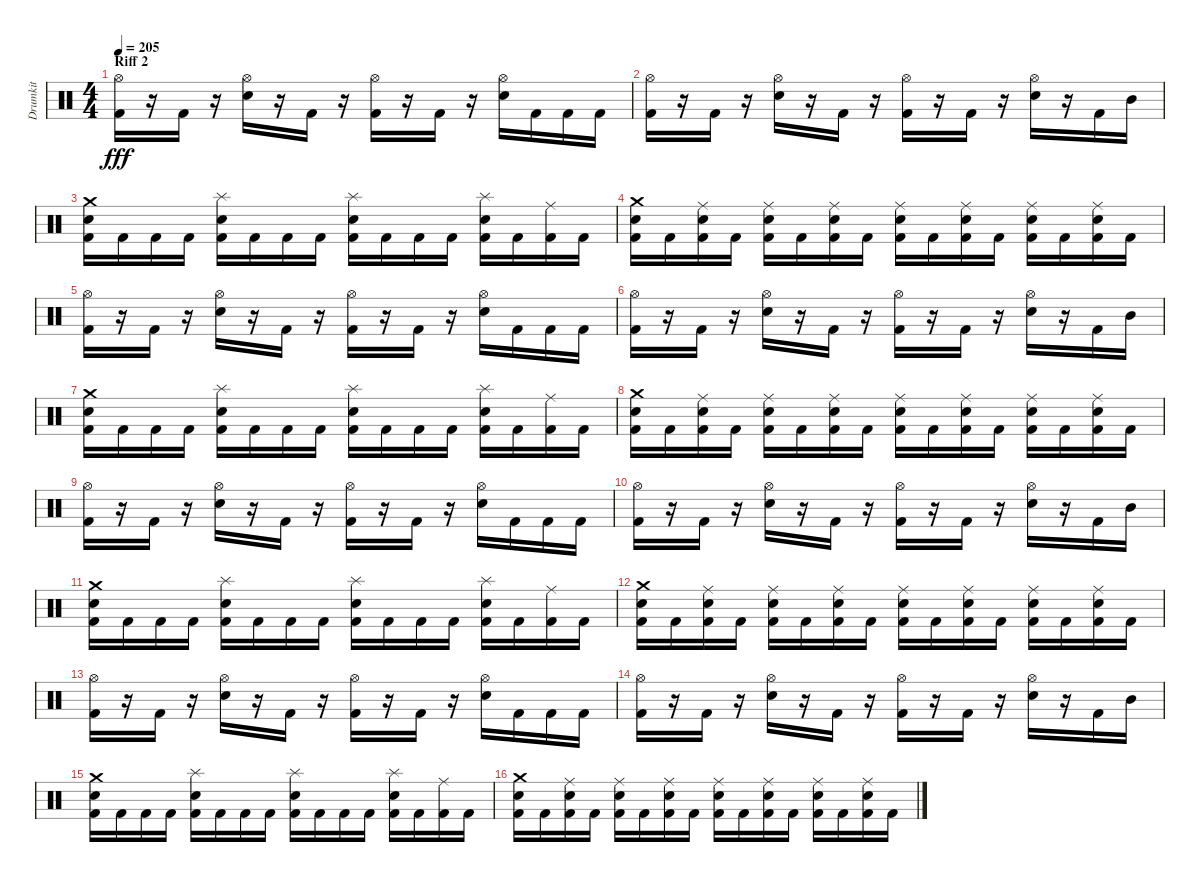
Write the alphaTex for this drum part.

\track ("Drumkit" "Drumkit") {instrument percussion}
\staff {score}
\articulation defaults
\ts (4 4)
\section ("" "Riff 2")
\tempo 205
\clef neutral
\ks c
("Kick (hit) 2" "Hi-Hat (open)").16{dy fff} r.16 "Kick (hit) 2".16 r.16 ("Snare (hit) 2" "Hi-Hat (open)").16 r.16 "Kick (hit) 2".16 r.16 ("Kick (hit) 2" "Hi-Hat (open)").16 r.16 "Kick (hit) 2".16 r.16 ("Snare (hit) 2" "Hi-Hat (open)").16 "Kick (hit) 2".16 "Kick (hit) 2".16 "Kick (hit) 2".16 |
("Kick (hit) 2" "Hi-Hat (open)").16 r.16 "Kick (hit) 2".16 r.16 ("Snare (hit) 2" "Hi-Hat (open)").16 r.16 "Kick (hit) 2".16 r.16 ("Kick (hit) 2" "Hi-Hat (open)").16 r.16 "Kick (hit) 2".16 r.16 ("Snare (hit) 2" "Hi-Hat (open)").16 r.16 "Kick (hit) 2".16 "Mid Tom (hit)".16 |
("Kick (hit) 2" "Snare (hit) 2" "Crash medium (hit)").16 "Kick (hit) 2".16 "Kick (hit) 2".16 "Kick (hit) 2".16 ("Kick (hit) 2" "Snare (hit) 2" "Splash (hit)").16 "Kick (hit) 2".16 "Kick (hit) 2".16 "Kick (hit) 2".16 ("Kick (hit) 2" "Snare (hit) 2" "Splash (hit)").16 "Kick (hit) 2".16 "Kick (hit) 2".16 "Kick (hit) 2".16 ("Kick (hit) 2" "Snare (hit) 2" "Splash (hit)").16 "Kick (hit) 2".16 ("Kick (hit) 2" "Ride (middle)").16 "Kick (hit) 2".16 |
("Kick (hit) 2" "Snare (hit) 2" "Crash medium (hit)").16 "Kick (hit) 2".16 ("Kick (hit) 2" "Snare (hit) 2" "Ride (middle)").16 "Kick (hit) 2".16 ("Kick (hit) 2" "Snare (hit) 2" "Ride (middle)").16 "Kick (hit) 2".16 ("Kick (hit) 2" "Snare (hit) 2" "Ride (middle)").16 "Kick (hit) 2".16 ("Kick (hit) 2" "Snare (hit) 2" "Ride (middle)").16 "Kick (hit) 2".16 ("Kick (hit) 2" "Snare (hit) 2" "Ride (middle)").16 "Kick (hit) 2".16 ("Kick (hit) 2" "Snare (hit) 2" "Ride (middle)").16 "Kick (hit) 2".16 ("Kick (hit) 2" "Snare (hit) 2" "Ride (middle)").16 "Kick (hit) 2".16 |
("Kick (hit) 2" "Hi-Hat (open)").16 r.16 "Kick (hit) 2".16 r.16 ("Snare (hit) 2" "Hi-Hat (open)").16 r.16 "Kick (hit) 2".16 r.16 ("Kick (hit) 2" "Hi-Hat (open)").16 r.16 "Kick (hit) 2".16 r.16 ("Snare (hit) 2" "Hi-Hat (open)").16 "Kick (hit) 2".16 "Kick (hit) 2".16 "Kick (hit) 2".16 |
("Kick (hit) 2" "Hi-Hat (open)").16 r.16 "Kick (hit) 2".16 r.16 ("Snare (hit) 2" "Hi-Hat (open)").16 r.16 "Kick (hit) 2".16 r.16 ("Kick (hit) 2" "Hi-Hat (open)").16 r.16 "Kick (hit) 2".16 r.16 ("Snare (hit) 2" "Hi-Hat (open)").16 r.16 "Kick (hit) 2".16 "Mid Tom (hit)".16 |
("Kick (hit) 2" "Snare (hit) 2" "Crash medium (hit)").16 "Kick (hit) 2".16 "Kick (hit) 2".16 "Kick (hit) 2".16 ("Kick (hit) 2" "Snare (hit) 2" "Splash (hit)").16 "Kick (hit) 2".16 "Kick (hit) 2".16 "Kick (hit) 2".16 ("Kick (hit) 2" "Snare (hit) 2" "Splash (hit)").16 "Kick (hit) 2".16 "Kick (hit) 2".16 "Kick (hit) 2".16 ("Kick (hit) 2" "Snare (hit) 2" "Splash (hit)").16 "Kick (hit) 2".16 ("Kick (hit) 2" "Ride (middle)").16 "Kick (hit) 2".16 |
("Kick (hit) 2" "Snare (hit) 2" "Crash medium (hit)").16 "Kick (hit) 2".16 ("Kick (hit) 2" "Snare (hit) 2" "Ride (middle)").16 "Kick (hit) 2".16 ("Kick (hit) 2" "Snare (hit) 2" "Ride (middle)").16 "Kick (hit) 2".16 ("Kick (hit) 2" "Snare (hit) 2" "Ride (middle)").16 "Kick (hit) 2".16 ("Kick (hit) 2" "Snare (hit) 2" "Ride (middle)").16 "Kick (hit) 2".16 ("Kick (hit) 2" "Snare (hit) 2" "Ride (middle)").16 "Kick (hit) 2".16 ("Kick (hit) 2" "Snare (hit) 2" "Ride (middle)").16 "Kick (hit) 2".16 ("Kick (hit) 2" "Snare (hit) 2" "Ride (middle)").16 "Kick (hit) 2".16 |
("Kick (hit) 2" "Hi-Hat (open)").16 r.16 "Kick (hit) 2".16 r.16 ("Snare (hit) 2" "Hi-Hat (open)").16 r.16 "Kick (hit) 2".16 r.16 ("Kick (hit) 2" "Hi-Hat (open)").16 r.16 "Kick (hit) 2".16 r.16 ("Snare (hit) 2" "Hi-Hat (open)").16 "Kick (hit) 2".16 "Kick (hit) 2".16 "Kick (hit) 2".16 |
("Kick (hit) 2" "Hi-Hat (open)").16 r.16 "Kick (hit) 2".16 r.16 ("Snare (hit) 2" "Hi-Hat (open)").16 r.16 "Kick (hit) 2".16 r.16 ("Kick (hit) 2" "Hi-Hat (open)").16 r.16 "Kick (hit) 2".16 r.16 ("Snare (hit) 2" "Hi-Hat (open)").16 r.16 "Kick (hit) 2".16 "Mid Tom (hit)".16 |
("Kick (hit) 2" "Snare (hit) 2" "Crash medium (hit)").16 "Kick (hit) 2".16 "Kick (hit) 2".16 "Kick (hit) 2".16 ("Kick (hit) 2" "Snare (hit) 2" "Splash (hit)").16 "Kick (hit) 2".16 "Kick (hit) 2".16 "Kick (hit) 2".16 ("Kick (hit) 2" "Snare (hit) 2" "Splash (hit)").16 "Kick (hit) 2".16 "Kick (hit) 2".16 "Kick (hit) 2".16 ("Kick (hit) 2" "Snare (hit) 2" "Splash (hit)").16 "Kick (hit) 2".16 ("Kick (hit) 2" "Ride (middle)").16 "Kick (hit) 2".16 |
("Kick (hit) 2" "Snare (hit) 2" "Crash medium (hit)").16 "Kick (hit) 2".16 ("Kick (hit) 2" "Snare (hit) 2" "Ride (middle)").16 "Kick (hit) 2".16 ("Kick (hit) 2" "Snare (hit) 2" "Ride (middle)").16 "Kick (hit) 2".16 ("Kick (hit) 2" "Snare (hit) 2" "Ride (middle)").16 "Kick (hit) 2".16 ("Kick (hit) 2" "Snare (hit) 2" "Ride (middle)").16 "Kick (hit) 2".16 ("Kick (hit) 2" "Snare (hit) 2" "Ride (middle)").16 "Kick (hit) 2".16 ("Kick (hit) 2" "Snare (hit) 2" "Ride (middle)").16 "Kick (hit) 2".16 ("Kick (hit) 2" "Snare (hit) 2" "Ride (middle)").16 "Kick (hit) 2".16 |
("Kick (hit) 2" "Hi-Hat (open)").16 r.16 "Kick (hit) 2".16 r.16 ("Snare (hit) 2" "Hi-Hat (open)").16 r.16 "Kick (hit) 2".16 r.16 ("Kick (hit) 2" "Hi-Hat (open)").16 r.16 "Kick (hit) 2".16 r.16 ("Snare (hit) 2" "Hi-Hat (open)").16 "Kick (hit) 2".16 "Kick (hit) 2".16 "Kick (hit) 2".16 |
("Kick (hit) 2" "Hi-Hat (open)").16 r.16 "Kick (hit) 2".16 r.16 ("Snare (hit) 2" "Hi-Hat (open)").16 r.16 "Kick (hit) 2".16 r.16 ("Kick (hit) 2" "Hi-Hat (open)").16 r.16 "Kick (hit) 2".16 r.16 ("Snare (hit) 2" "Hi-Hat (open)").16 r.16 "Kick (hit) 2".16 "Mid Tom (hit)".16 |
("Kick (hit) 2" "Snare (hit) 2" "Crash medium (hit)").16 "Kick (hit) 2".16 "Kick (hit) 2".16 "Kick (hit) 2".16 ("Kick (hit) 2" "Snare (hit) 2" "Splash (hit)").16 "Kick (hit) 2".16 "Kick (hit) 2".16 "Kick (hit) 2".16 ("Kick (hit) 2" "Snare (hit) 2" "Splash (hit)").16 "Kick (hit) 2".16 "Kick (hit) 2".16 "Kick (hit) 2".16 ("Kick (hit) 2" "Snare (hit) 2" "Splash (hit)").16 "Kick (hit) 2".16 ("Kick (hit) 2" "Ride (middle)").16 "Kick (hit) 2".16 |
("Kick (hit) 2" "Snare (hit) 2" "Crash medium (hit)").16 "Kick (hit) 2".16 ("Kick (hit) 2" "Snare (hit) 2" "Ride (middle)").16 "Kick (hit) 2".16 ("Kick (hit) 2" "Snare (hit) 2" "Ride (middle)").16 "Kick (hit) 2".16 ("Kick (hit) 2" "Snare (hit) 2" "Ride (middle)").16 "Kick (hit) 2".16 ("Kick (hit) 2" "Snare (hit) 2" "Ride (middle)").16 "Kick (hit) 2".16 ("Kick (hit) 2" "Snare (hit) 2" "Ride (middle)").16 "Kick (hit) 2".16 ("Kick (hit) 2" "Snare (hit) 2" "Ride (middle)").16 "Kick (hit) 2".16 ("Kick (hit) 2" "Snare (hit) 2" "Ride (middle)").16 "Kick (hit) 2".16
